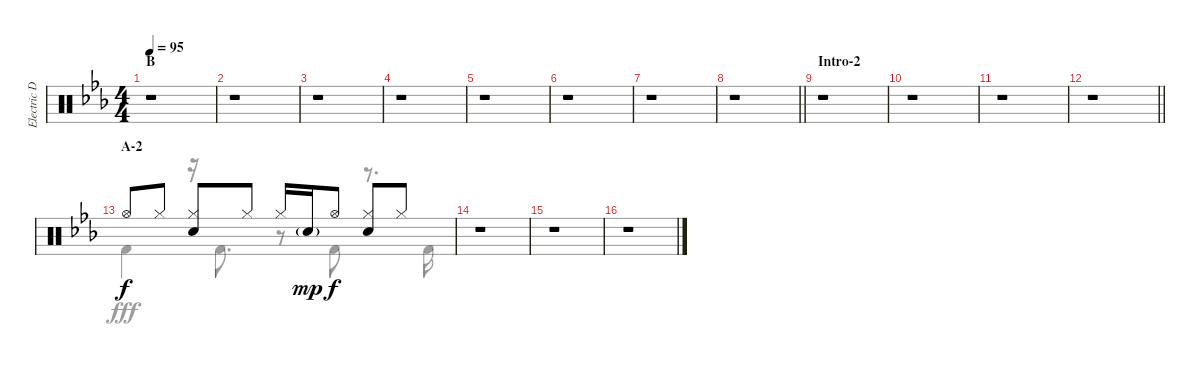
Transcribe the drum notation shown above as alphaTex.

\track ("Electric Drums" "Electric D") {instrument percussion}
\staff {score}
\articulation defaults
\voice
\ts (4 4)
\section ("" "B")
\tempo 95
\clef neutral
\ks cminor
r.1{dy f} |
r.1 |
r.1 |
r.1 |
r.1 |
r.1 |
r.1 |
\barLineRight lightlight
r.1 |
\section ("" "Intro-2")
r.1 |
r.1 |
r.1 |
\barLineRight lightlight
r.1 |
\section ("" "A-2")
"Hi-Hat (open)".8 "Hi-Hat (closed)".8 ("Hi-Hat (closed)" "Electric Snare (hit)").8 "Hi-Hat (closed)".8 "Hi-Hat (closed)".16 "Electric Snare (hit)"{g}.16{dy mp} "Hi-Hat (open)".8{dy f} ("Hi-Hat (closed)" "Electric Snare (hit)").8 "Hi-Hat (closed)".8 |
r.1 |
r.1 |
r.1
\voice
\clef neutral
\ottava regular
\simile none
\ks cminor
r.1{dy fff} |
r.1 |
r.1 |
r.1 |
r.1 |
r.1 |
r.1 |
\barLineRight lightlight
r.1 |
r.1 |
r.1 |
r.1 |
\barLineRight lightlight
r.1 |
"Kick (hit) 2".4 r.16 "Kick (hit) 2".8{d} r.8 "Kick (hit) 2".8 r.8{d} "Kick (hit) 2".16 |
r.1 |
r.1 |
r.1
